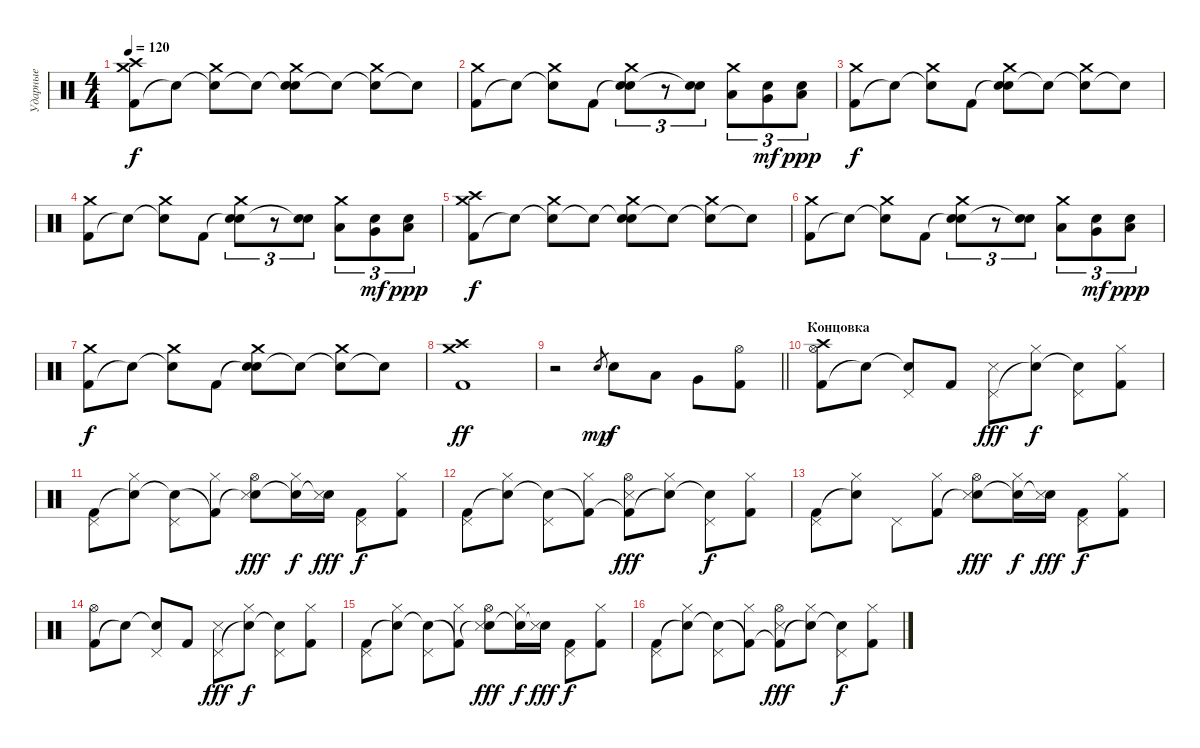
\track ("Ударные" "Ударные") {instrument percussion}
\staff {score}
\articulation defaults
\ts (4 4)
\tempo 120
\clef neutral
\ks c
("Kick (hit) 2" "Crash medium (hit)" "Crash high (hit)").8{dy f} "Snare (hit)"{t}.8 ("Snare (hit)"{t} "Crash medium (hit)").8 "Snare (hit)"{t}.8 ("Snare (hit)"{t} "Crash medium (hit)" "Electric Snare (hit)").8 "Snare (hit)"{t}.8 ("Snare (hit)"{t} "Crash medium (hit)").8 "Snare (hit)"{t}.8 |
("Kick (hit) 2" "Crash medium (hit)").8 "Snare (hit)"{t}.8 ("Snare (hit)"{t} "Crash medium (hit)").8 "Kick (hit) 2".8 ("Snare (hit)"{t} "Crash medium (hit)" "Electric Snare (hit)").8{tu (3 2)} r.8{tu (3 2)} ("Snare (hit)"{t} "Electric Snare (hit)").8{tu (3 2)} ("Low Tom (hit)" "Crash medium (hit)").8{tu (3 2)} ("Very Low Tom (hit)" "Electric Snare (hit)").8{tu (3 2) dy mf} ("Low Floor Tom (hit)" "Electric Snare (hit)").8{tu (3 2) dy ppp} |
("Kick (hit) 2" "Crash medium (hit)").8{dy f} "Snare (hit)"{t}.8 ("Snare (hit)"{t} "Crash medium (hit)").8 "Kick (hit) 2".8 ("Snare (hit)"{t} "Crash medium (hit)" "Electric Snare (hit)").8 "Snare (hit)"{t}.8 ("Snare (hit)"{t} "Crash medium (hit)").8 "Snare (hit)"{t}.8 |
("Kick (hit) 2" "Crash medium (hit)").8 "Snare (hit)"{t}.8 ("Snare (hit)"{t} "Crash medium (hit)").8 "Kick (hit) 2".8 ("Snare (hit)"{t} "Crash medium (hit)" "Electric Snare (hit)").8{tu (3 2)} r.8{tu (3 2)} ("Snare (hit)"{t} "Electric Snare (hit)").8{tu (3 2)} ("Low Tom (hit)" "Crash medium (hit)").8{tu (3 2)} ("Very Low Tom (hit)" "Electric Snare (hit)").8{tu (3 2) dy mf} ("Low Floor Tom (hit)" "Electric Snare (hit)").8{tu (3 2) dy ppp} |
("Kick (hit) 2" "Crash medium (hit)" "Crash high (hit)").8{dy f} "Snare (hit)"{t}.8 ("Snare (hit)"{t} "Crash medium (hit)").8 "Snare (hit)"{t}.8 ("Snare (hit)"{t} "Crash medium (hit)" "Electric Snare (hit)").8 "Snare (hit)"{t}.8 ("Snare (hit)"{t} "Crash medium (hit)").8 "Snare (hit)"{t}.8 |
("Kick (hit) 2" "Crash medium (hit)").8 "Snare (hit)"{t}.8 ("Snare (hit)"{t} "Crash medium (hit)").8 "Kick (hit) 2".8 ("Snare (hit)"{t} "Crash medium (hit)" "Electric Snare (hit)").8{tu (3 2)} r.8{tu (3 2)} ("Snare (hit)"{t} "Electric Snare (hit)").8{tu (3 2)} ("Low Tom (hit)" "Crash medium (hit)").8{tu (3 2)} ("Very Low Tom (hit)" "Electric Snare (hit)").8{tu (3 2) dy mf} ("Low Floor Tom (hit)" "Electric Snare (hit)").8{tu (3 2) dy ppp} |
("Kick (hit) 2" "Crash medium (hit)").8{dy f} "Snare (hit)"{t}.8 ("Snare (hit)"{t} "Crash medium (hit)").8 "Kick (hit) 2".8 ("Snare (hit)"{t} "Crash medium (hit)" "Electric Snare (hit)").8 "Snare (hit)"{t}.8 ("Snare (hit)"{t} "Crash medium (hit)").8 "Snare (hit)"{t}.8 |
("Kick (hit) 2" "Crash medium (hit)" "Crash high (hit)").1{dy ff} |
\barLineRight lightlight
r.2 "Electric Snare (hit)".8{gr dy mp} "Electric Snare (hit)".8{dy f} "Low Tom (hit)".8 "Very Low Tom (hit)".8 ("Kick (hit) 2" "Hi-Hat (open)").8 |
\section ("" "Концовка")
("Kick (hit) 2" "Hi-Hat (open)" "Crash high (hit)").8 "Snare (hit)"{t}.8 ("Snare (hit)"{t} "Pedal Hi-Hat (hit)").8 "Kick (hit) 2".8 ("Pedal Hi-Hat (hit)" "Snare (side stick) 3").8{dy fff} ("Snare (hit)"{t} "Hi-Hat (closed)").8{dy f} ("Snare (hit)"{t} "Pedal Hi-Hat (hit)").8 ("Kick (hit) 2" "Hi-Hat (closed)").8 |
("Kick (hit) 2" "Pedal Hi-Hat (hit)").8 ("Snare (hit)"{t} "Hi-Hat (closed)").8 ("Snare (hit)"{t} "Pedal Hi-Hat (hit)").8 ("Kick (hit) 2"{t} "Hi-Hat (closed)").8 ("Snare (hit)"{t} "Hi-Hat (open)" "Snare (side stick) 3").8{dy fff} ("Snare (hit)"{t} "Hi-Hat (closed)").16{dy f} ("Snare (hit)"{t} "Snare (side stick) 3").16{dy fff} ("Kick (hit) 2" "Pedal Hi-Hat (hit)").8{dy f} ("Kick (hit) 2" "Hi-Hat (closed)").8 |
("Kick (hit) 2" "Pedal Hi-Hat (hit)").8 ("Snare (hit)"{t} "Hi-Hat (closed)").8 ("Snare (hit)"{t} "Pedal Hi-Hat (hit)").8 ("Kick (hit) 2"{t} "Hi-Hat (closed)").8 ("Kick (hit) 2"{t} "Hi-Hat (open)" "Snare (side stick) 3").8{dy fff} ("Snare (hit)"{t} "Hi-Hat (closed)").8 ("Snare (hit)"{t} "Pedal Hi-Hat (hit)").8{dy f} ("Kick (hit) 2" "Hi-Hat (closed)").8 |
("Kick (hit) 2" "Pedal Hi-Hat (hit)").8 ("Snare (hit)"{t} "Hi-Hat (closed)").8 "Pedal Hi-Hat (hit)".8 ("Kick (hit) 2" "Hi-Hat (closed)").8 ("Snare (hit)"{t} "Hi-Hat (open)" "Snare (side stick) 3").8{dy fff} ("Snare (hit)"{t} "Hi-Hat (closed)").16{dy f} ("Snare (hit)"{t} "Snare (side stick) 3").16{dy fff} ("Kick (hit) 2" "Pedal Hi-Hat (hit)").8{dy f} ("Kick (hit) 2" "Hi-Hat (closed)").8 |
("Kick (hit) 2" "Hi-Hat (open)").8 "Snare (hit)"{t}.8 ("Snare (hit)"{t} "Pedal Hi-Hat (hit)").8 "Kick (hit) 2".8 ("Pedal Hi-Hat (hit)" "Snare (side stick) 3").8{dy fff} ("Snare (hit)"{t} "Hi-Hat (closed)").8{dy f} ("Snare (hit)"{t} "Pedal Hi-Hat (hit)").8 ("Kick (hit) 2" "Hi-Hat (closed)").8 |
("Kick (hit) 2" "Pedal Hi-Hat (hit)").8 ("Snare (hit)"{t} "Hi-Hat (closed)").8 ("Snare (hit)"{t} "Pedal Hi-Hat (hit)").8 ("Kick (hit) 2"{t} "Hi-Hat (closed)").8 ("Snare (hit)"{t} "Hi-Hat (open)" "Snare (side stick) 3").8{dy fff} ("Snare (hit)"{t} "Hi-Hat (closed)").16{dy f} ("Snare (hit)"{t} "Snare (side stick) 3").16{dy fff} ("Kick (hit) 2" "Pedal Hi-Hat (hit)").8{dy f} ("Kick (hit) 2" "Hi-Hat (closed)").8 |
("Kick (hit) 2" "Pedal Hi-Hat (hit)").8 ("Snare (hit)"{t} "Hi-Hat (closed)").8 ("Snare (hit)"{t} "Pedal Hi-Hat (hit)").8 ("Kick (hit) 2"{t} "Hi-Hat (closed)").8 ("Kick (hit) 2"{t} "Hi-Hat (open)" "Snare (side stick) 3").8{dy fff} ("Snare (hit)"{t} "Hi-Hat (closed)").8 ("Snare (hit)"{t} "Pedal Hi-Hat (hit)").8{dy f} ("Kick (hit) 2" "Hi-Hat (closed)").8
